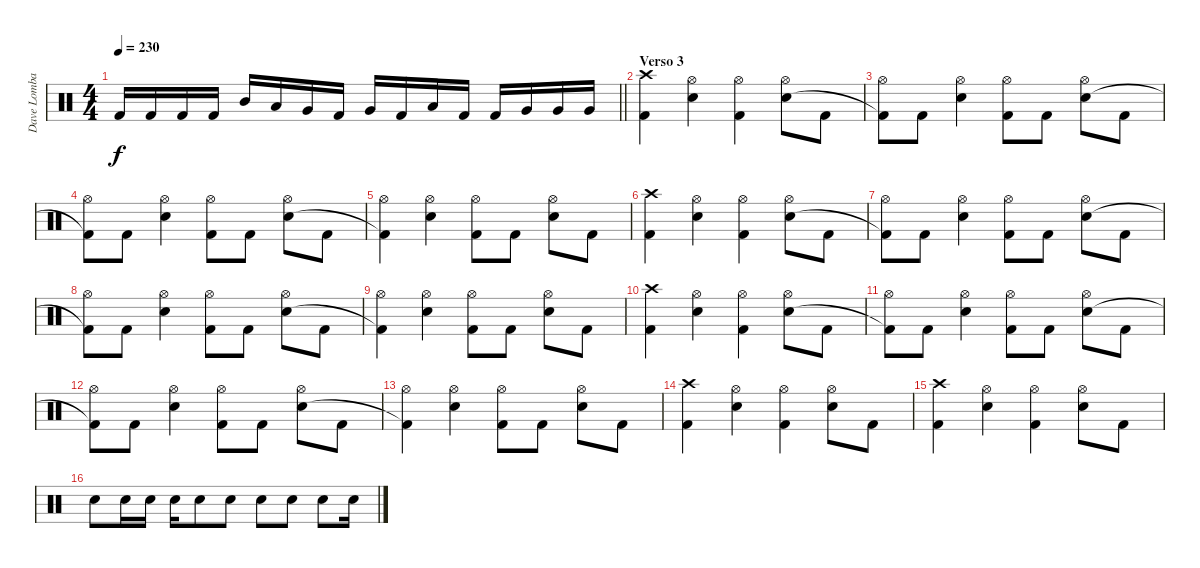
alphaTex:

\track ("Dave Lombardo" "Dave Lomba") {instrument percussion}
\staff {score}
\articulation defaults
\ts (4 4)
\tempo 230
\clef neutral
\barLineRight lightlight
\ks c "Kick (hit) 2".16{dy f} "Kick (hit) 2".16 "Kick (hit) 2".16 "Kick (hit) 2".16 "Mid Tom (hit)".16 "Low Tom (hit)".16 "Very Low Tom (hit)".16 "Kick (hit) 2".16 "Very Low Tom (hit)".16 "Kick (hit) 2".16 "Low Floor Tom (hit)".16 "Kick (hit) 2".16 "Kick (hit) 2".16 "Very Low Tom (hit)".16 "Very Low Tom (hit)".16 "Very Low Tom (hit)".16
|
\section ("" "Verso 3")
("Crash high (hit)" "Kick (hit) 2").4 ("Hi-Hat (open)" "Snare (hit) 2").4 ("Hi-Hat (open)" "Kick (hit) 2").4 ("Hi-Hat (open)" "Snare (hit) 2").8 "Kick (hit) 2".8 |
("Hi-Hat (open)" "Kick (hit) 2"{t}).8 "Kick (hit) 2".8 ("Hi-Hat (open)" "Snare (hit) 2").4 ("Hi-Hat (open)" "Kick (hit) 2").8 "Kick (hit) 2".8 ("Hi-Hat (open)" "Snare (hit) 2").8 "Kick (hit) 2".8 |
("Hi-Hat (open)" "Kick (hit) 2"{t}).8 "Kick (hit) 2".8 ("Hi-Hat (open)" "Snare (hit) 2").4 ("Hi-Hat (open)" "Kick (hit) 2").8 "Kick (hit) 2".8 ("Hi-Hat (open)" "Snare (hit) 2").8 "Kick (hit) 2".8 |
("Hi-Hat (open)" "Kick (hit) 2"{t}).4 ("Hi-Hat (open)" "Snare (hit) 2").4 ("Hi-Hat (open)" "Kick (hit) 2").8 "Kick (hit) 2".8 ("Hi-Hat (open)" "Snare (hit) 2").8 "Kick (hit) 2".8 |
("Crash high (hit)" "Kick (hit) 2").4 ("Hi-Hat (open)" "Snare (hit) 2").4 ("Hi-Hat (open)" "Kick (hit) 2").4 ("Hi-Hat (open)" "Snare (hit) 2").8 "Kick (hit) 2".8 |
("Hi-Hat (open)" "Kick (hit) 2"{t}).8 "Kick (hit) 2".8 ("Hi-Hat (open)" "Snare (hit) 2").4 ("Hi-Hat (open)" "Kick (hit) 2").8 "Kick (hit) 2".8 ("Hi-Hat (open)" "Snare (hit) 2").8 "Kick (hit) 2".8 |
("Hi-Hat (open)" "Kick (hit) 2"{t}).8 "Kick (hit) 2".8 ("Hi-Hat (open)" "Snare (hit) 2").4 ("Hi-Hat (open)" "Kick (hit) 2").8 "Kick (hit) 2".8 ("Hi-Hat (open)" "Snare (hit) 2").8 "Kick (hit) 2".8 |
("Hi-Hat (open)" "Kick (hit) 2"{t}).4 ("Hi-Hat (open)" "Snare (hit) 2").4 ("Hi-Hat (open)" "Kick (hit) 2").8 "Kick (hit) 2".8 ("Hi-Hat (open)" "Snare (hit) 2").8 "Kick (hit) 2".8 |
("Crash high (hit)" "Kick (hit) 2").4 ("Hi-Hat (open)" "Snare (hit) 2").4 ("Hi-Hat (open)" "Kick (hit) 2").4 ("Hi-Hat (open)" "Snare (hit) 2").8 "Kick (hit) 2".8 |
("Hi-Hat (open)" "Kick (hit) 2"{t}).8 "Kick (hit) 2".8 ("Hi-Hat (open)" "Snare (hit) 2").4 ("Hi-Hat (open)" "Kick (hit) 2").8 "Kick (hit) 2".8 ("Hi-Hat (open)" "Snare (hit) 2").8 "Kick (hit) 2".8 |
("Hi-Hat (open)" "Kick (hit) 2"{t}).8 "Kick (hit) 2".8 ("Hi-Hat (open)" "Snare (hit) 2").4 ("Hi-Hat (open)" "Kick (hit) 2").8 "Kick (hit) 2".8 ("Hi-Hat (open)" "Snare (hit) 2").8 "Kick (hit) 2".8 |
("Hi-Hat (open)" "Kick (hit) 2"{t}).4 ("Hi-Hat (open)" "Snare (hit) 2").4 ("Hi-Hat (open)" "Kick (hit) 2").8 "Kick (hit) 2".8 ("Hi-Hat (open)" "Snare (hit) 2").8 "Kick (hit) 2".8 |
("Crash high (hit)" "Kick (hit) 2").4 ("Hi-Hat (open)" "Snare (hit) 2").4 ("Hi-Hat (open)" "Kick (hit) 2").4 ("Hi-Hat (open)" "Snare (hit) 2").8 "Kick (hit) 2".8 |
("Crash high (hit)" "Kick (hit) 2").4 ("Hi-Hat (open)" "Snare (hit) 2").4 ("Hi-Hat (open)" "Kick (hit) 2").4 ("Hi-Hat (open)" "Snare (hit) 2").8 "Kick (hit) 2".8 |
"Snare (hit) 2".8 "Snare (hit) 2".16 "Snare (hit) 2".16 "Snare (hit) 2".16 "Snare (hit) 2".8 "Snare (hit) 2".8 "Snare (hit) 2".8 "Snare (hit) 2".8 "Snare (hit) 2".8 "Snare (hit) 2".16
